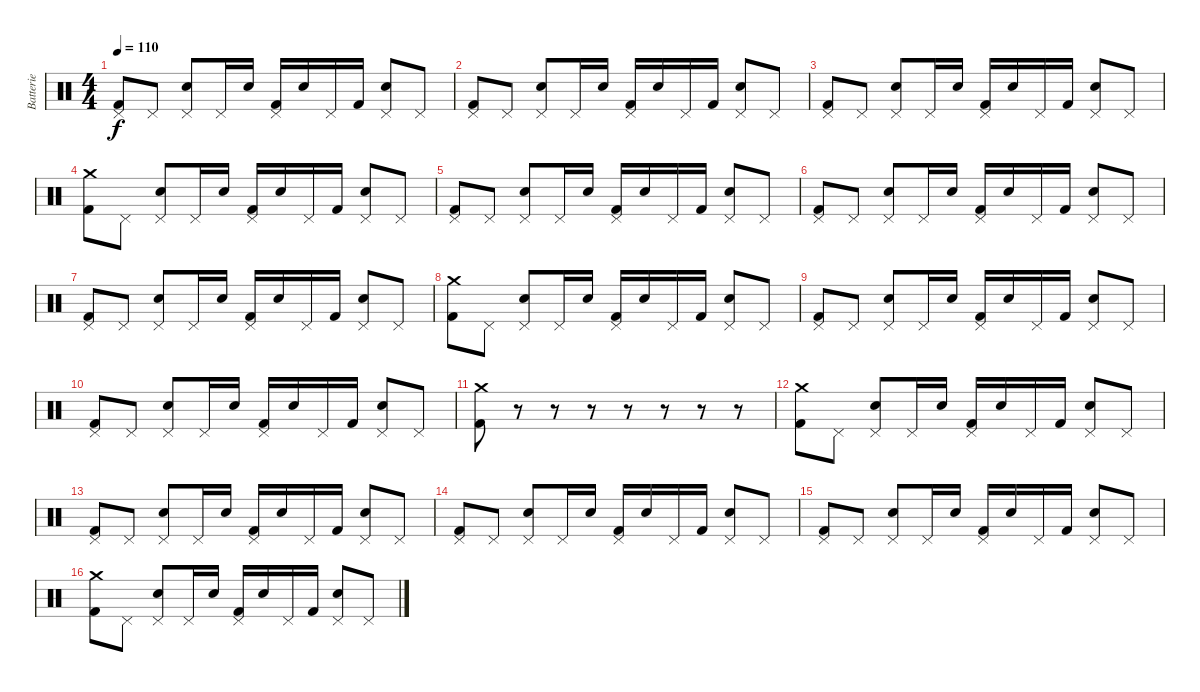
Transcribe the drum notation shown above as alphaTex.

\track ("Batterie" "Batterie") {instrument percussion}
\staff {score}
\articulation defaults
\ts (4 4)
\tempo 110
\clef neutral
\ks c
("Pedal Hi-Hat (hit)" "Kick (hit) 2").8{dy f} "Pedal Hi-Hat (hit)".8 ("Pedal Hi-Hat (hit)" "Electric Snare (hit)").8 "Pedal Hi-Hat (hit)".16 "Electric Snare (hit)".16 ("Pedal Hi-Hat (hit)" "Kick (hit) 2").16 "Electric Snare (hit)".16 "Pedal Hi-Hat (hit)".16 "Kick (hit) 2".16 ("Pedal Hi-Hat (hit)" "Electric Snare (hit)").8 "Pedal Hi-Hat (hit)".8 |
("Pedal Hi-Hat (hit)" "Kick (hit) 2").8 "Pedal Hi-Hat (hit)".8 ("Pedal Hi-Hat (hit)" "Electric Snare (hit)").8 "Pedal Hi-Hat (hit)".16 "Electric Snare (hit)".16 ("Pedal Hi-Hat (hit)" "Kick (hit) 2").16 "Electric Snare (hit)".16 "Pedal Hi-Hat (hit)".16 "Kick (hit) 2".16 ("Pedal Hi-Hat (hit)" "Electric Snare (hit)").8 "Pedal Hi-Hat (hit)".8 |
("Pedal Hi-Hat (hit)" "Kick (hit) 2").8 "Pedal Hi-Hat (hit)".8 ("Pedal Hi-Hat (hit)" "Electric Snare (hit)").8 "Pedal Hi-Hat (hit)".16 "Electric Snare (hit)".16 ("Pedal Hi-Hat (hit)" "Kick (hit) 2").16 "Electric Snare (hit)".16 "Pedal Hi-Hat (hit)".16 "Kick (hit) 2".16 ("Pedal Hi-Hat (hit)" "Electric Snare (hit)").8 "Pedal Hi-Hat (hit)".8 |
("Crash medium (hit)" "Kick (hit) 2").8 "Pedal Hi-Hat (hit)".8 ("Pedal Hi-Hat (hit)" "Electric Snare (hit)").8 "Pedal Hi-Hat (hit)".16 "Electric Snare (hit)".16 ("Pedal Hi-Hat (hit)" "Kick (hit) 2").16 "Electric Snare (hit)".16 "Pedal Hi-Hat (hit)".16 "Kick (hit) 2".16 ("Pedal Hi-Hat (hit)" "Electric Snare (hit)").8 "Pedal Hi-Hat (hit)".8 |
("Pedal Hi-Hat (hit)" "Kick (hit) 2").8 "Pedal Hi-Hat (hit)".8 ("Pedal Hi-Hat (hit)" "Electric Snare (hit)").8 "Pedal Hi-Hat (hit)".16 "Electric Snare (hit)".16 ("Pedal Hi-Hat (hit)" "Kick (hit) 2").16 "Electric Snare (hit)".16 "Pedal Hi-Hat (hit)".16 "Kick (hit) 2".16 ("Pedal Hi-Hat (hit)" "Electric Snare (hit)").8 "Pedal Hi-Hat (hit)".8 |
("Pedal Hi-Hat (hit)" "Kick (hit) 2").8 "Pedal Hi-Hat (hit)".8 ("Pedal Hi-Hat (hit)" "Electric Snare (hit)").8 "Pedal Hi-Hat (hit)".16 "Electric Snare (hit)".16 ("Pedal Hi-Hat (hit)" "Kick (hit) 2").16 "Electric Snare (hit)".16 "Pedal Hi-Hat (hit)".16 "Kick (hit) 2".16 ("Pedal Hi-Hat (hit)" "Electric Snare (hit)").8 "Pedal Hi-Hat (hit)".8 |
("Pedal Hi-Hat (hit)" "Kick (hit) 2").8 "Pedal Hi-Hat (hit)".8 ("Pedal Hi-Hat (hit)" "Electric Snare (hit)").8 "Pedal Hi-Hat (hit)".16 "Electric Snare (hit)".16 ("Pedal Hi-Hat (hit)" "Kick (hit) 2").16 "Electric Snare (hit)".16 "Pedal Hi-Hat (hit)".16 "Kick (hit) 2".16 ("Pedal Hi-Hat (hit)" "Electric Snare (hit)").8 "Pedal Hi-Hat (hit)".8 |
("Crash medium (hit)" "Kick (hit) 2").8 "Pedal Hi-Hat (hit)".8 ("Pedal Hi-Hat (hit)" "Electric Snare (hit)").8 "Pedal Hi-Hat (hit)".16 "Electric Snare (hit)".16 ("Pedal Hi-Hat (hit)" "Kick (hit) 2").16 "Electric Snare (hit)".16 "Pedal Hi-Hat (hit)".16 "Kick (hit) 2".16 ("Pedal Hi-Hat (hit)" "Electric Snare (hit)").8 "Pedal Hi-Hat (hit)".8 |
("Pedal Hi-Hat (hit)" "Kick (hit) 2").8 "Pedal Hi-Hat (hit)".8 ("Pedal Hi-Hat (hit)" "Electric Snare (hit)").8 "Pedal Hi-Hat (hit)".16 "Electric Snare (hit)".16 ("Pedal Hi-Hat (hit)" "Kick (hit) 2").16 "Electric Snare (hit)".16 "Pedal Hi-Hat (hit)".16 "Kick (hit) 2".16 ("Pedal Hi-Hat (hit)" "Electric Snare (hit)").8 "Pedal Hi-Hat (hit)".8 |
("Pedal Hi-Hat (hit)" "Kick (hit) 2").8 "Pedal Hi-Hat (hit)".8 ("Pedal Hi-Hat (hit)" "Electric Snare (hit)").8 "Pedal Hi-Hat (hit)".16 "Electric Snare (hit)".16 ("Pedal Hi-Hat (hit)" "Kick (hit) 2").16 "Electric Snare (hit)".16 "Pedal Hi-Hat (hit)".16 "Kick (hit) 2".16 ("Pedal Hi-Hat (hit)" "Electric Snare (hit)").8 "Pedal Hi-Hat (hit)".8 |
("Crash medium (hit)" "Kick (hit) 2").8 r.8 r.8 r.8 r.8 r.8 r.8 r.8 |
("Crash medium (hit)" "Kick (hit) 2").8 "Pedal Hi-Hat (hit)".8 ("Pedal Hi-Hat (hit)" "Electric Snare (hit)").8 "Pedal Hi-Hat (hit)".16 "Electric Snare (hit)".16 ("Pedal Hi-Hat (hit)" "Kick (hit) 2").16 "Electric Snare (hit)".16 "Pedal Hi-Hat (hit)".16 "Kick (hit) 2".16 ("Pedal Hi-Hat (hit)" "Electric Snare (hit)").8 "Pedal Hi-Hat (hit)".8 |
("Pedal Hi-Hat (hit)" "Kick (hit) 2").8 "Pedal Hi-Hat (hit)".8 ("Pedal Hi-Hat (hit)" "Electric Snare (hit)").8 "Pedal Hi-Hat (hit)".16 "Electric Snare (hit)".16 ("Pedal Hi-Hat (hit)" "Kick (hit) 2").16 "Electric Snare (hit)".16 "Pedal Hi-Hat (hit)".16 "Kick (hit) 2".16 ("Pedal Hi-Hat (hit)" "Electric Snare (hit)").8 "Pedal Hi-Hat (hit)".8 |
("Pedal Hi-Hat (hit)" "Kick (hit) 2").8 "Pedal Hi-Hat (hit)".8 ("Pedal Hi-Hat (hit)" "Electric Snare (hit)").8 "Pedal Hi-Hat (hit)".16 "Electric Snare (hit)".16 ("Pedal Hi-Hat (hit)" "Kick (hit) 2").16 "Electric Snare (hit)".16 "Pedal Hi-Hat (hit)".16 "Kick (hit) 2".16 ("Pedal Hi-Hat (hit)" "Electric Snare (hit)").8 "Pedal Hi-Hat (hit)".8 |
("Pedal Hi-Hat (hit)" "Kick (hit) 2").8 "Pedal Hi-Hat (hit)".8 ("Pedal Hi-Hat (hit)" "Electric Snare (hit)").8 "Pedal Hi-Hat (hit)".16 "Electric Snare (hit)".16 ("Pedal Hi-Hat (hit)" "Kick (hit) 2").16 "Electric Snare (hit)".16 "Pedal Hi-Hat (hit)".16 "Kick (hit) 2".16 ("Pedal Hi-Hat (hit)" "Electric Snare (hit)").8 "Pedal Hi-Hat (hit)".8 |
("Crash medium (hit)" "Kick (hit) 2").8 "Pedal Hi-Hat (hit)".8 ("Pedal Hi-Hat (hit)" "Electric Snare (hit)").8 "Pedal Hi-Hat (hit)".16 "Electric Snare (hit)".16 ("Pedal Hi-Hat (hit)" "Kick (hit) 2").16 "Electric Snare (hit)".16 "Pedal Hi-Hat (hit)".16 "Kick (hit) 2".16 ("Pedal Hi-Hat (hit)" "Electric Snare (hit)").8 "Pedal Hi-Hat (hit)".8
